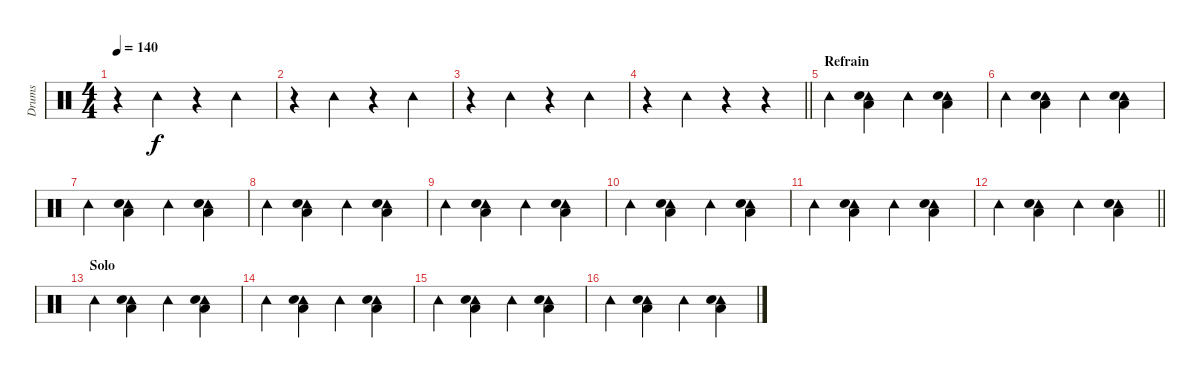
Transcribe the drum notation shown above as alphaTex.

\track ("Drums" "Drums") {instrument percussion}
\staff {score}
\articulation defaults
\ts (4 4)
\tempo 140
\clef neutral
\ks c
r.4{dy f} "Tambourine (hit)".4 r.4 "Tambourine (hit)".4 |
r.4 "Tambourine (hit)".4 r.4 "Tambourine (hit)".4 |
r.4 "Tambourine (hit)".4 r.4 "Tambourine (hit)".4 |
\barLineRight lightlight
r.4 "Tambourine (hit)".4 r.4 r.4 |
\section ("" "Refrain")
"Tambourine (hit)".4 ("Low Tom (hit)" "Tambourine (hit)" "Hand Clap (hit)").4 "Tambourine (hit)".4 ("Low Tom (hit)" "Tambourine (hit)" "Hand Clap (hit)").4 |
"Tambourine (hit)".4 ("Low Tom (hit)" "Tambourine (hit)" "Hand Clap (hit)").4 "Tambourine (hit)".4 ("Low Tom (hit)" "Tambourine (hit)" "Hand Clap (hit)").4 |
"Tambourine (hit)".4 ("Low Tom (hit)" "Tambourine (hit)" "Hand Clap (hit)").4 "Tambourine (hit)".4 ("Low Tom (hit)" "Tambourine (hit)" "Hand Clap (hit)").4 |
"Tambourine (hit)".4 ("Low Tom (hit)" "Tambourine (hit)" "Hand Clap (hit)").4 "Tambourine (hit)".4 ("Low Tom (hit)" "Tambourine (hit)" "Hand Clap (hit)").4 |
"Tambourine (hit)".4 ("Low Tom (hit)" "Tambourine (hit)" "Hand Clap (hit)").4 "Tambourine (hit)".4 ("Low Tom (hit)" "Tambourine (hit)" "Hand Clap (hit)").4 |
"Tambourine (hit)".4 ("Low Tom (hit)" "Tambourine (hit)" "Hand Clap (hit)").4 "Tambourine (hit)".4 ("Low Tom (hit)" "Tambourine (hit)" "Hand Clap (hit)").4 |
"Tambourine (hit)".4 ("Low Tom (hit)" "Tambourine (hit)" "Hand Clap (hit)").4 "Tambourine (hit)".4 ("Low Tom (hit)" "Tambourine (hit)" "Hand Clap (hit)").4 |
\barLineRight lightlight "Tambourine (hit)".4
("Low Tom (hit)" "Tambourine (hit)" "Hand Clap (hit)").4 "Tambourine (hit)".4 ("Low Tom (hit)" "Tambourine (hit)" "Hand Clap (hit)").4 |
\section ("" "Solo")
"Tambourine (hit)".4 ("Low Tom (hit)" "Tambourine (hit)" "Hand Clap (hit)").4 "Tambourine (hit)".4 ("Low Tom (hit)" "Tambourine (hit)" "Hand Clap (hit)").4 |
"Tambourine (hit)".4 ("Low Tom (hit)" "Tambourine (hit)" "Hand Clap (hit)").4 "Tambourine (hit)".4 ("Low Tom (hit)" "Tambourine (hit)" "Hand Clap (hit)").4 |
"Tambourine (hit)".4 ("Low Tom (hit)" "Tambourine (hit)" "Hand Clap (hit)").4 "Tambourine (hit)".4 ("Low Tom (hit)" "Tambourine (hit)" "Hand Clap (hit)").4 |
"Tambourine (hit)".4 ("Low Tom (hit)" "Tambourine (hit)" "Hand Clap (hit)").4 "Tambourine (hit)".4 ("Low Tom (hit)" "Tambourine (hit)" "Hand Clap (hit)").4
